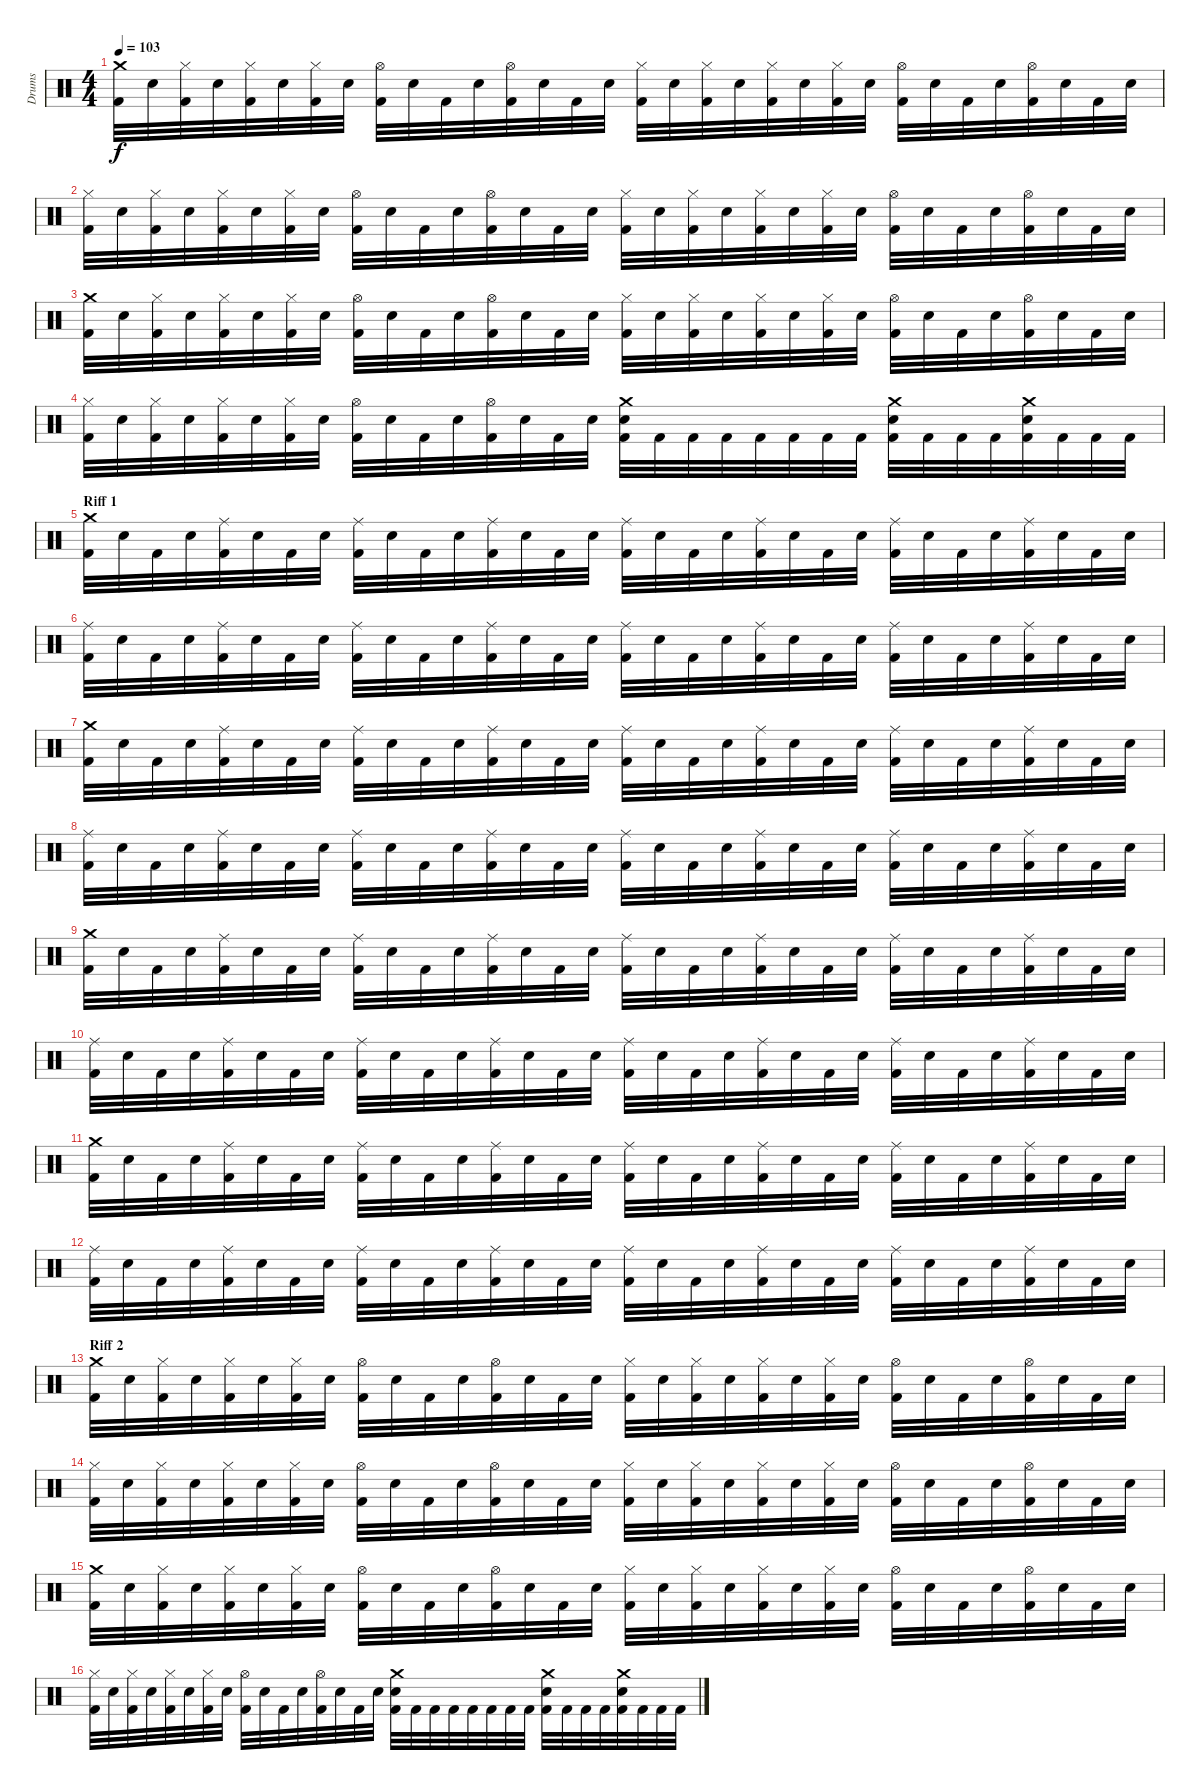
\track ("Drums" "Drums") {instrument percussion}
\staff {score}
\articulation defaults
\ts (4 4)
\tempo 103
\clef neutral
\ks c
("Crash medium (hit)" "Kick (hit) 2").32{dy f} "Electric Snare (hit)".32 ("Hi-Hat (closed)" "Kick (hit) 2").32 "Electric Snare (hit)".32 ("Hi-Hat (closed)" "Kick (hit) 2").32 "Electric Snare (hit)".32 ("Hi-Hat (closed)" "Kick (hit) 2").32 "Electric Snare (hit)".32 ("Hi-Hat (open)" "Kick (hit) 2").32 "Electric Snare (hit)".32 "Kick (hit) 2".32 "Electric Snare (hit)".32 ("Hi-Hat (open)" "Kick (hit) 2").32 "Electric Snare (hit)".32 "Kick (hit) 2".32 "Electric Snare (hit)".32 ("Hi-Hat (closed)" "Kick (hit) 2").32 "Electric Snare (hit)".32 ("Hi-Hat (closed)" "Kick (hit) 2").32 "Electric Snare (hit)".32 ("Hi-Hat (closed)" "Kick (hit) 2").32 "Electric Snare (hit)".32 ("Hi-Hat (closed)" "Kick (hit) 2").32 "Electric Snare (hit)".32 ("Hi-Hat (open)" "Kick (hit) 2").32 "Electric Snare (hit)".32 "Kick (hit) 2".32 "Electric Snare (hit)".32 ("Hi-Hat (open)" "Kick (hit) 2").32 "Electric Snare (hit)".32 "Kick (hit) 2".32 "Electric Snare (hit)".32 |
("Hi-Hat (closed)" "Kick (hit) 2").32 "Electric Snare (hit)".32 ("Hi-Hat (closed)" "Kick (hit) 2").32 "Electric Snare (hit)".32 ("Hi-Hat (closed)" "Kick (hit) 2").32 "Electric Snare (hit)".32 ("Hi-Hat (closed)" "Kick (hit) 2").32 "Electric Snare (hit)".32 ("Hi-Hat (open)" "Kick (hit) 2").32 "Electric Snare (hit)".32 "Kick (hit) 2".32 "Electric Snare (hit)".32 ("Hi-Hat (open)" "Kick (hit) 2").32 "Electric Snare (hit)".32 "Kick (hit) 2".32 "Electric Snare (hit)".32 ("Hi-Hat (closed)" "Kick (hit) 2").32 "Electric Snare (hit)".32 ("Hi-Hat (closed)" "Kick (hit) 2").32 "Electric Snare (hit)".32 ("Hi-Hat (closed)" "Kick (hit) 2").32 "Electric Snare (hit)".32 ("Hi-Hat (closed)" "Kick (hit) 2").32 "Electric Snare (hit)".32 ("Hi-Hat (open)" "Kick (hit) 2").32 "Electric Snare (hit)".32 "Kick (hit) 2".32 "Electric Snare (hit)".32 ("Hi-Hat (open)" "Kick (hit) 2").32 "Electric Snare (hit)".32 "Kick (hit) 2".32 "Electric Snare (hit)".32 |
("Crash medium (hit)" "Kick (hit) 2").32 "Electric Snare (hit)".32 ("Hi-Hat (closed)" "Kick (hit) 2").32 "Electric Snare (hit)".32 ("Hi-Hat (closed)" "Kick (hit) 2").32 "Electric Snare (hit)".32 ("Hi-Hat (closed)" "Kick (hit) 2").32 "Electric Snare (hit)".32 ("Hi-Hat (open)" "Kick (hit) 2").32 "Electric Snare (hit)".32 "Kick (hit) 2".32 "Electric Snare (hit)".32 ("Hi-Hat (open)" "Kick (hit) 2").32 "Electric Snare (hit)".32 "Kick (hit) 2".32 "Electric Snare (hit)".32 ("Hi-Hat (closed)" "Kick (hit) 2").32 "Electric Snare (hit)".32 ("Hi-Hat (closed)" "Kick (hit) 2").32 "Electric Snare (hit)".32 ("Hi-Hat (closed)" "Kick (hit) 2").32 "Electric Snare (hit)".32 ("Hi-Hat (closed)" "Kick (hit) 2").32 "Electric Snare (hit)".32 ("Hi-Hat (open)" "Kick (hit) 2").32 "Electric Snare (hit)".32 "Kick (hit) 2".32 "Electric Snare (hit)".32 ("Hi-Hat (open)" "Kick (hit) 2").32 "Electric Snare (hit)".32 "Kick (hit) 2".32 "Electric Snare (hit)".32 |
("Hi-Hat (closed)" "Kick (hit) 2").32 "Electric Snare (hit)".32 ("Hi-Hat (closed)" "Kick (hit) 2").32 "Electric Snare (hit)".32 ("Hi-Hat (closed)" "Kick (hit) 2").32 "Electric Snare (hit)".32 ("Hi-Hat (closed)" "Kick (hit) 2").32 "Electric Snare (hit)".32 ("Hi-Hat (open)" "Kick (hit) 2").32 "Electric Snare (hit)".32 "Kick (hit) 2".32 "Electric Snare (hit)".32 ("Hi-Hat (open)" "Kick (hit) 2").32 "Electric Snare (hit)".32 "Kick (hit) 2".32 "Electric Snare (hit)".32 ("Crash medium (hit)" "Electric Snare (hit)" "Kick (hit) 2").32 "Kick (hit) 2".32 "Kick (hit) 2".32 "Kick (hit) 2".32 "Kick (hit) 2".32 "Kick (hit) 2".32 "Kick (hit) 2".32 "Kick (hit) 2".32 ("Crash medium (hit)" "Electric Snare (hit)" "Kick (hit) 2").32 "Kick (hit) 2".32 "Kick (hit) 2".32 "Kick (hit) 2".32 ("Crash medium (hit)" "Electric Snare (hit)" "Kick (hit) 2").32 "Kick (hit) 2".32 "Kick (hit) 2".32 "Kick (hit) 2".32 |
\section ("" "Riff 1")
("Crash medium (hit)" "Kick (hit) 2").32 "Electric Snare (hit)".32 "Kick (hit) 2".32 "Electric Snare (hit)".32 ("Ride (middle)" "Kick (hit) 2").32 "Electric Snare (hit)".32 "Kick (hit) 2".32 "Electric Snare (hit)".32 ("Ride (middle)" "Kick (hit) 2").32 "Electric Snare (hit)".32 "Kick (hit) 2".32 "Electric Snare (hit)".32 ("Ride (middle)" "Kick (hit) 2").32 "Electric Snare (hit)".32 "Kick (hit) 2".32 "Electric Snare (hit)".32 ("Ride (middle)" "Kick (hit) 2").32 "Electric Snare (hit)".32 "Kick (hit) 2".32 "Electric Snare (hit)".32 ("Ride (middle)" "Kick (hit) 2").32 "Electric Snare (hit)".32 "Kick (hit) 2".32 "Electric Snare (hit)".32 ("Ride (middle)" "Kick (hit) 2").32 "Electric Snare (hit)".32 "Kick (hit) 2".32 "Electric Snare (hit)".32 ("Ride (middle)" "Kick (hit) 2").32 "Electric Snare (hit)".32 "Kick (hit) 2".32 "Electric Snare (hit)".32 |
("Ride (middle)" "Kick (hit) 2").32 "Electric Snare (hit)".32 "Kick (hit) 2".32 "Electric Snare (hit)".32 ("Ride (middle)" "Kick (hit) 2").32 "Electric Snare (hit)".32 "Kick (hit) 2".32 "Electric Snare (hit)".32 ("Ride (middle)" "Kick (hit) 2").32 "Electric Snare (hit)".32 "Kick (hit) 2".32 "Electric Snare (hit)".32 ("Ride (middle)" "Kick (hit) 2").32 "Electric Snare (hit)".32 "Kick (hit) 2".32 "Electric Snare (hit)".32 ("Ride (middle)" "Kick (hit) 2").32 "Electric Snare (hit)".32 "Kick (hit) 2".32 "Electric Snare (hit)".32 ("Ride (middle)" "Kick (hit) 2").32 "Electric Snare (hit)".32 "Kick (hit) 2".32 "Electric Snare (hit)".32 ("Ride (middle)" "Kick (hit) 2").32 "Electric Snare (hit)".32 "Kick (hit) 2".32 "Electric Snare (hit)".32 ("Ride (middle)" "Kick (hit) 2").32 "Electric Snare (hit)".32 "Kick (hit) 2".32 "Electric Snare (hit)".32 |
("Crash medium (hit)" "Kick (hit) 2").32 "Electric Snare (hit)".32 "Kick (hit) 2".32 "Electric Snare (hit)".32 ("Ride (middle)" "Kick (hit) 2").32 "Electric Snare (hit)".32 "Kick (hit) 2".32 "Electric Snare (hit)".32 ("Ride (middle)" "Kick (hit) 2").32 "Electric Snare (hit)".32 "Kick (hit) 2".32 "Electric Snare (hit)".32 ("Ride (middle)" "Kick (hit) 2").32 "Electric Snare (hit)".32 "Kick (hit) 2".32 "Electric Snare (hit)".32 ("Ride (middle)" "Kick (hit) 2").32 "Electric Snare (hit)".32 "Kick (hit) 2".32 "Electric Snare (hit)".32 ("Ride (middle)" "Kick (hit) 2").32 "Electric Snare (hit)".32 "Kick (hit) 2".32 "Electric Snare (hit)".32 ("Ride (middle)" "Kick (hit) 2").32 "Electric Snare (hit)".32 "Kick (hit) 2".32 "Electric Snare (hit)".32 ("Ride (middle)" "Kick (hit) 2").32 "Electric Snare (hit)".32 "Kick (hit) 2".32 "Electric Snare (hit)".32 |
("Ride (middle)" "Kick (hit) 2").32 "Electric Snare (hit)".32 "Kick (hit) 2".32 "Electric Snare (hit)".32 ("Ride (middle)" "Kick (hit) 2").32 "Electric Snare (hit)".32 "Kick (hit) 2".32 "Electric Snare (hit)".32 ("Ride (middle)" "Kick (hit) 2").32 "Electric Snare (hit)".32 "Kick (hit) 2".32 "Electric Snare (hit)".32 ("Ride (middle)" "Kick (hit) 2").32 "Electric Snare (hit)".32 "Kick (hit) 2".32 "Electric Snare (hit)".32 ("Ride (middle)" "Kick (hit) 2").32 "Electric Snare (hit)".32 "Kick (hit) 2".32 "Electric Snare (hit)".32 ("Ride (middle)" "Kick (hit) 2").32 "Electric Snare (hit)".32 "Kick (hit) 2".32 "Electric Snare (hit)".32 ("Ride (middle)" "Kick (hit) 2").32 "Electric Snare (hit)".32 "Kick (hit) 2".32 "Electric Snare (hit)".32 ("Ride (middle)" "Kick (hit) 2").32 "Electric Snare (hit)".32 "Kick (hit) 2".32 "Electric Snare (hit)".32 |
("Crash medium (hit)" "Kick (hit) 2").32 "Electric Snare (hit)".32 "Kick (hit) 2".32 "Electric Snare (hit)".32 ("Ride (middle)" "Kick (hit) 2").32 "Electric Snare (hit)".32 "Kick (hit) 2".32 "Electric Snare (hit)".32 ("Ride (middle)" "Kick (hit) 2").32 "Electric Snare (hit)".32 "Kick (hit) 2".32 "Electric Snare (hit)".32 ("Ride (middle)" "Kick (hit) 2").32 "Electric Snare (hit)".32 "Kick (hit) 2".32 "Electric Snare (hit)".32 ("Ride (middle)" "Kick (hit) 2").32 "Electric Snare (hit)".32 "Kick (hit) 2".32 "Electric Snare (hit)".32 ("Ride (middle)" "Kick (hit) 2").32 "Electric Snare (hit)".32 "Kick (hit) 2".32 "Electric Snare (hit)".32 ("Ride (middle)" "Kick (hit) 2").32 "Electric Snare (hit)".32 "Kick (hit) 2".32 "Electric Snare (hit)".32 ("Ride (middle)" "Kick (hit) 2").32 "Electric Snare (hit)".32 "Kick (hit) 2".32 "Electric Snare (hit)".32 |
("Ride (middle)" "Kick (hit) 2").32 "Electric Snare (hit)".32 "Kick (hit) 2".32 "Electric Snare (hit)".32 ("Ride (middle)" "Kick (hit) 2").32 "Electric Snare (hit)".32 "Kick (hit) 2".32 "Electric Snare (hit)".32 ("Ride (middle)" "Kick (hit) 2").32 "Electric Snare (hit)".32 "Kick (hit) 2".32 "Electric Snare (hit)".32 ("Ride (middle)" "Kick (hit) 2").32 "Electric Snare (hit)".32 "Kick (hit) 2".32 "Electric Snare (hit)".32 ("Ride (middle)" "Kick (hit) 2").32 "Electric Snare (hit)".32 "Kick (hit) 2".32 "Electric Snare (hit)".32 ("Ride (middle)" "Kick (hit) 2").32 "Electric Snare (hit)".32 "Kick (hit) 2".32 "Electric Snare (hit)".32 ("Ride (middle)" "Kick (hit) 2").32 "Electric Snare (hit)".32 "Kick (hit) 2".32 "Electric Snare (hit)".32 ("Ride (middle)" "Kick (hit) 2").32 "Electric Snare (hit)".32 "Kick (hit) 2".32 "Electric Snare (hit)".32 |
("Crash medium (hit)" "Kick (hit) 2").32 "Electric Snare (hit)".32 "Kick (hit) 2".32 "Electric Snare (hit)".32 ("Ride (middle)" "Kick (hit) 2").32 "Electric Snare (hit)".32 "Kick (hit) 2".32 "Electric Snare (hit)".32 ("Ride (middle)" "Kick (hit) 2").32 "Electric Snare (hit)".32 "Kick (hit) 2".32 "Electric Snare (hit)".32 ("Ride (middle)" "Kick (hit) 2").32 "Electric Snare (hit)".32 "Kick (hit) 2".32 "Electric Snare (hit)".32 ("Ride (middle)" "Kick (hit) 2").32 "Electric Snare (hit)".32 "Kick (hit) 2".32 "Electric Snare (hit)".32 ("Ride (middle)" "Kick (hit) 2").32 "Electric Snare (hit)".32 "Kick (hit) 2".32 "Electric Snare (hit)".32 ("Ride (middle)" "Kick (hit) 2").32 "Electric Snare (hit)".32 "Kick (hit) 2".32 "Electric Snare (hit)".32 ("Ride (middle)" "Kick (hit) 2").32 "Electric Snare (hit)".32 "Kick (hit) 2".32 "Electric Snare (hit)".32 |
("Ride (middle)" "Kick (hit) 2").32 "Electric Snare (hit)".32 "Kick (hit) 2".32 "Electric Snare (hit)".32 ("Ride (middle)" "Kick (hit) 2").32 "Electric Snare (hit)".32 "Kick (hit) 2".32 "Electric Snare (hit)".32 ("Ride (middle)" "Kick (hit) 2").32 "Electric Snare (hit)".32 "Kick (hit) 2".32 "Electric Snare (hit)".32 ("Ride (middle)" "Kick (hit) 2").32 "Electric Snare (hit)".32 "Kick (hit) 2".32 "Electric Snare (hit)".32 ("Ride (middle)" "Kick (hit) 2").32 "Electric Snare (hit)".32 "Kick (hit) 2".32 "Electric Snare (hit)".32 ("Ride (middle)" "Kick (hit) 2").32 "Electric Snare (hit)".32 "Kick (hit) 2".32 "Electric Snare (hit)".32 ("Ride (middle)" "Kick (hit) 2").32 "Electric Snare (hit)".32 "Kick (hit) 2".32 "Electric Snare (hit)".32 ("Ride (middle)" "Kick (hit) 2").32 "Electric Snare (hit)".32 "Kick (hit) 2".32 "Electric Snare (hit)".32 |
\section ("" "Riff 2")
("Crash medium (hit)" "Kick (hit) 2").32 "Electric Snare (hit)".32 ("Hi-Hat (closed)" "Kick (hit) 2").32 "Electric Snare (hit)".32 ("Hi-Hat (closed)" "Kick (hit) 2").32 "Electric Snare (hit)".32 ("Hi-Hat (closed)" "Kick (hit) 2").32 "Electric Snare (hit)".32 ("Hi-Hat (open)" "Kick (hit) 2").32 "Electric Snare (hit)".32 "Kick (hit) 2".32 "Electric Snare (hit)".32 ("Hi-Hat (open)" "Kick (hit) 2").32 "Electric Snare (hit)".32 "Kick (hit) 2".32 "Electric Snare (hit)".32 ("Hi-Hat (closed)" "Kick (hit) 2").32 "Electric Snare (hit)".32 ("Hi-Hat (closed)" "Kick (hit) 2").32 "Electric Snare (hit)".32 ("Hi-Hat (closed)" "Kick (hit) 2").32 "Electric Snare (hit)".32 ("Hi-Hat (closed)" "Kick (hit) 2").32 "Electric Snare (hit)".32 ("Hi-Hat (open)" "Kick (hit) 2").32 "Electric Snare (hit)".32 "Kick (hit) 2".32 "Electric Snare (hit)".32 ("Hi-Hat (open)" "Kick (hit) 2").32 "Electric Snare (hit)".32 "Kick (hit) 2".32 "Electric Snare (hit)".32 |
("Hi-Hat (closed)" "Kick (hit) 2").32 "Electric Snare (hit)".32 ("Hi-Hat (closed)" "Kick (hit) 2").32 "Electric Snare (hit)".32 ("Hi-Hat (closed)" "Kick (hit) 2").32 "Electric Snare (hit)".32 ("Hi-Hat (closed)" "Kick (hit) 2").32 "Electric Snare (hit)".32 ("Hi-Hat (open)" "Kick (hit) 2").32 "Electric Snare (hit)".32 "Kick (hit) 2".32 "Electric Snare (hit)".32 ("Hi-Hat (open)" "Kick (hit) 2").32 "Electric Snare (hit)".32 "Kick (hit) 2".32 "Electric Snare (hit)".32 ("Hi-Hat (closed)" "Kick (hit) 2").32 "Electric Snare (hit)".32 ("Hi-Hat (closed)" "Kick (hit) 2").32 "Electric Snare (hit)".32 ("Hi-Hat (closed)" "Kick (hit) 2").32 "Electric Snare (hit)".32 ("Hi-Hat (closed)" "Kick (hit) 2").32 "Electric Snare (hit)".32 ("Hi-Hat (open)" "Kick (hit) 2").32 "Electric Snare (hit)".32 "Kick (hit) 2".32 "Electric Snare (hit)".32 ("Hi-Hat (open)" "Kick (hit) 2").32 "Electric Snare (hit)".32 "Kick (hit) 2".32 "Electric Snare (hit)".32 |
("Crash medium (hit)" "Kick (hit) 2").32 "Electric Snare (hit)".32 ("Hi-Hat (closed)" "Kick (hit) 2").32 "Electric Snare (hit)".32 ("Hi-Hat (closed)" "Kick (hit) 2").32 "Electric Snare (hit)".32 ("Hi-Hat (closed)" "Kick (hit) 2").32 "Electric Snare (hit)".32 ("Hi-Hat (open)" "Kick (hit) 2").32 "Electric Snare (hit)".32 "Kick (hit) 2".32 "Electric Snare (hit)".32 ("Hi-Hat (open)" "Kick (hit) 2").32 "Electric Snare (hit)".32 "Kick (hit) 2".32 "Electric Snare (hit)".32 ("Hi-Hat (closed)" "Kick (hit) 2").32 "Electric Snare (hit)".32 ("Hi-Hat (closed)" "Kick (hit) 2").32 "Electric Snare (hit)".32 ("Hi-Hat (closed)" "Kick (hit) 2").32 "Electric Snare (hit)".32 ("Hi-Hat (closed)" "Kick (hit) 2").32 "Electric Snare (hit)".32 ("Hi-Hat (open)" "Kick (hit) 2").32 "Electric Snare (hit)".32 "Kick (hit) 2".32 "Electric Snare (hit)".32 ("Hi-Hat (open)" "Kick (hit) 2").32 "Electric Snare (hit)".32 "Kick (hit) 2".32 "Electric Snare (hit)".32 |
("Hi-Hat (closed)" "Kick (hit) 2").32 "Electric Snare (hit)".32 ("Hi-Hat (closed)" "Kick (hit) 2").32 "Electric Snare (hit)".32 ("Hi-Hat (closed)" "Kick (hit) 2").32 "Electric Snare (hit)".32 ("Hi-Hat (closed)" "Kick (hit) 2").32 "Electric Snare (hit)".32 ("Hi-Hat (open)" "Kick (hit) 2").32 "Electric Snare (hit)".32 "Kick (hit) 2".32 "Electric Snare (hit)".32 ("Hi-Hat (open)" "Kick (hit) 2").32 "Electric Snare (hit)".32 "Kick (hit) 2".32 "Electric Snare (hit)".32 ("Crash medium (hit)" "Electric Snare (hit)" "Kick (hit) 2").32 "Kick (hit) 2".32 "Kick (hit) 2".32 "Kick (hit) 2".32 "Kick (hit) 2".32 "Kick (hit) 2".32 "Kick (hit) 2".32 "Kick (hit) 2".32 ("Crash medium (hit)" "Electric Snare (hit)" "Kick (hit) 2").32 "Kick (hit) 2".32 "Kick (hit) 2".32 "Kick (hit) 2".32 ("Crash medium (hit)" "Electric Snare (hit)" "Kick (hit) 2").32 "Kick (hit) 2".32 "Kick (hit) 2".32 "Kick (hit) 2".32
